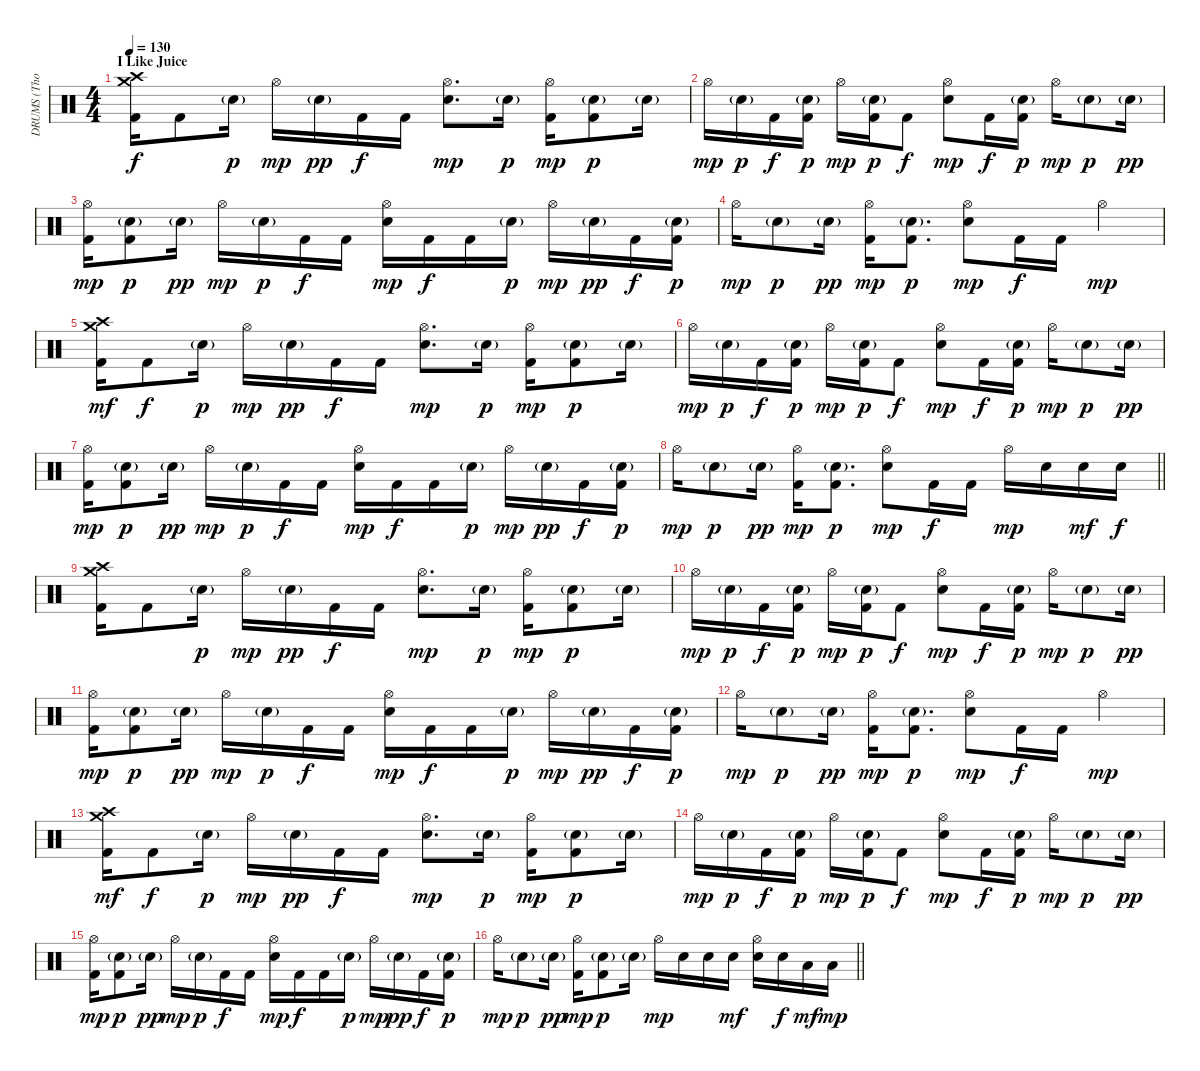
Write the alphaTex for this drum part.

\track ("DRUMS (Thomas Haake)" "DRUMS (Tho") {instrument percussion}
\staff {score}
\articulation defaults
\ts (4 4)
\section ("" "I Like Juice")
\tempo 130
\clef neutral
\ks c
("Crash high (hit)" "Crash medium (hit)" "Kick (hit) 2").16{dy f} "Kick (hit) 2".8 "Electric Snare (hit)"{g}.16{dy p} "Hi-Hat (open)".16{dy mp} "Electric Snare (hit)"{g}.16{dy pp} "Kick (hit) 2".16{dy f} "Kick (hit) 2".16 ("Hi-Hat (open)" "Electric Snare (hit)").8{d dy mp} "Electric Snare (hit)"{g}.16{dy p} ("Hi-Hat (open)" "Kick (hit) 2").16{dy mp} ("Electric Snare (hit)"{g} "Kick (hit) 2").8{dy p} "Electric Snare (hit)"{g}.16 |
"Hi-Hat (open)".16{dy mp} "Electric Snare (hit)"{g}.16{dy p} "Kick (hit) 2".16{dy f} ("Electric Snare (hit)"{g} "Kick (hit) 2").16{dy p} "Hi-Hat (open)".16{dy mp} ("Electric Snare (hit)"{g} "Kick (hit) 2").16{dy p} "Kick (hit) 2".8{dy f} ("Hi-Hat (open)" "Electric Snare (hit)").8{dy mp} "Kick (hit) 2".16{dy f} ("Electric Snare (hit)"{g} "Kick (hit) 2").16{dy p} "Hi-Hat (open)".16{dy mp} "Electric Snare (hit)"{g}.8{dy p} "Electric Snare (hit)"{g}.16{dy pp} |
("Hi-Hat (open)" "Kick (hit) 2").16{dy mp} ("Electric Snare (hit)"{g} "Kick (hit) 2").8{dy p} "Electric Snare (hit)"{g}.16{dy pp} "Hi-Hat (open)".16{dy mp} "Electric Snare (hit)"{g}.16{dy p} "Kick (hit) 2".16{dy f} "Kick (hit) 2".16 ("Hi-Hat (open)" "Electric Snare (hit)").16{dy mp} "Kick (hit) 2".16{dy f} "Kick (hit) 2".16 "Electric Snare (hit)"{g}.16{dy p} "Hi-Hat (open)".16{dy mp} "Electric Snare (hit)"{g}.16{dy pp} "Kick (hit) 2".16{dy f} ("Electric Snare (hit)"{g} "Kick (hit) 2").16{dy p} |
"Hi-Hat (open)".16{dy mp} "Electric Snare (hit)"{g}.8{dy p} "Electric Snare (hit)"{g}.16{dy pp} ("Hi-Hat (open)" "Kick (hit) 2").16{dy mp} ("Electric Snare (hit)"{g} "Kick (hit) 2").8{d dy p} ("Hi-Hat (open)" "Electric Snare (hit)").8{dy mp} "Kick (hit) 2".16{dy f} "Kick (hit) 2".16 "Hi-Hat (open)".4{dy mp} |
("Crash high (hit)" "Crash medium (hit)" "Kick (hit) 2").16{dy mf} "Kick (hit) 2".8{dy f} "Electric Snare (hit)"{g}.16{dy p} "Hi-Hat (open)".16{dy mp} "Electric Snare (hit)"{g}.16{dy pp} "Kick (hit) 2".16{dy f} "Kick (hit) 2".16 ("Hi-Hat (open)" "Electric Snare (hit)").8{d dy mp} "Electric Snare (hit)"{g}.16{dy p} ("Hi-Hat (open)" "Kick (hit) 2").16{dy mp} ("Electric Snare (hit)"{g} "Kick (hit) 2").8{dy p} "Electric Snare (hit)"{g}.16 |
"Hi-Hat (open)".16{dy mp} "Electric Snare (hit)"{g}.16{dy p} "Kick (hit) 2".16{dy f} ("Electric Snare (hit)"{g} "Kick (hit) 2").16{dy p} "Hi-Hat (open)".16{dy mp} ("Electric Snare (hit)"{g} "Kick (hit) 2").16{dy p} "Kick (hit) 2".8{dy f} ("Hi-Hat (open)" "Electric Snare (hit)").8{dy mp} "Kick (hit) 2".16{dy f} ("Electric Snare (hit)"{g} "Kick (hit) 2").16{dy p} "Hi-Hat (open)".16{dy mp} "Electric Snare (hit)"{g}.8{dy p} "Electric Snare (hit)"{g}.16{dy pp} |
("Hi-Hat (open)" "Kick (hit) 2").16{dy mp} ("Electric Snare (hit)"{g} "Kick (hit) 2").8{dy p} "Electric Snare (hit)"{g}.16{dy pp} "Hi-Hat (open)".16{dy mp} "Electric Snare (hit)"{g}.16{dy p} "Kick (hit) 2".16{dy f} "Kick (hit) 2".16 ("Hi-Hat (open)" "Electric Snare (hit)").16{dy mp} "Kick (hit) 2".16{dy f} "Kick (hit) 2".16 "Electric Snare (hit)"{g}.16{dy p} "Hi-Hat (open)".16{dy mp} "Electric Snare (hit)"{g}.16{dy pp} "Kick (hit) 2".16{dy f} ("Electric Snare (hit)"{g} "Kick (hit) 2").16{dy p} |
\barLineRight lightlight "Hi-Hat (open)".16{dy mp} "Electric Snare (hit)"{g}.8{dy p} "Electric Snare (hit)"{g}.16{dy pp}
("Hi-Hat (open)" "Kick (hit) 2").16{dy mp} ("Electric Snare (hit)"{g} "Kick (hit) 2").8{d dy p} ("Hi-Hat (open)" "Electric Snare (hit)").8{dy mp} "Kick (hit) 2".16{dy f} "Kick (hit) 2".16 "Hi-Hat (open)".16{dy mp} "Electric Snare (hit)".16 "Electric Snare (hit)".16{dy mf} "Electric Snare (hit)".16{dy f} |
("Crash high (hit)" "Crash medium (hit)" "Kick (hit) 2").16 "Kick (hit) 2".8 "Electric Snare (hit)"{g}.16{dy p} "Hi-Hat (open)".16{dy mp} "Electric Snare (hit)"{g}.16{dy pp} "Kick (hit) 2".16{dy f} "Kick (hit) 2".16 ("Hi-Hat (open)" "Electric Snare (hit)").8{d dy mp} "Electric Snare (hit)"{g}.16{dy p} ("Hi-Hat (open)" "Kick (hit) 2").16{dy mp} ("Electric Snare (hit)"{g} "Kick (hit) 2").8{dy p} "Electric Snare (hit)"{g}.16 |
"Hi-Hat (open)".16{dy mp} "Electric Snare (hit)"{g}.16{dy p} "Kick (hit) 2".16{dy f} ("Electric Snare (hit)"{g} "Kick (hit) 2").16{dy p} "Hi-Hat (open)".16{dy mp} ("Electric Snare (hit)"{g} "Kick (hit) 2").16{dy p} "Kick (hit) 2".8{dy f} ("Hi-Hat (open)" "Electric Snare (hit)").8{dy mp} "Kick (hit) 2".16{dy f} ("Electric Snare (hit)"{g} "Kick (hit) 2").16{dy p} "Hi-Hat (open)".16{dy mp} "Electric Snare (hit)"{g}.8{dy p} "Electric Snare (hit)"{g}.16{dy pp} |
("Hi-Hat (open)" "Kick (hit) 2").16{dy mp} ("Electric Snare (hit)"{g} "Kick (hit) 2").8{dy p} "Electric Snare (hit)"{g}.16{dy pp} "Hi-Hat (open)".16{dy mp} "Electric Snare (hit)"{g}.16{dy p} "Kick (hit) 2".16{dy f} "Kick (hit) 2".16 ("Hi-Hat (open)" "Electric Snare (hit)").16{dy mp} "Kick (hit) 2".16{dy f} "Kick (hit) 2".16 "Electric Snare (hit)"{g}.16{dy p} "Hi-Hat (open)".16{dy mp} "Electric Snare (hit)"{g}.16{dy pp} "Kick (hit) 2".16{dy f} ("Electric Snare (hit)"{g} "Kick (hit) 2").16{dy p} |
"Hi-Hat (open)".16{dy mp} "Electric Snare (hit)"{g}.8{dy p} "Electric Snare (hit)"{g}.16{dy pp} ("Hi-Hat (open)" "Kick (hit) 2").16{dy mp} ("Electric Snare (hit)"{g} "Kick (hit) 2").8{d dy p} ("Hi-Hat (open)" "Electric Snare (hit)").8{dy mp} "Kick (hit) 2".16{dy f} "Kick (hit) 2".16 "Hi-Hat (open)".4{dy mp} |
("Crash high (hit)" "Crash medium (hit)" "Kick (hit) 2").16{dy mf} "Kick (hit) 2".8{dy f} "Electric Snare (hit)"{g}.16{dy p} "Hi-Hat (open)".16{dy mp} "Electric Snare (hit)"{g}.16{dy pp} "Kick (hit) 2".16{dy f} "Kick (hit) 2".16 ("Hi-Hat (open)" "Electric Snare (hit)").8{d dy mp} "Electric Snare (hit)"{g}.16{dy p} ("Hi-Hat (open)" "Kick (hit) 2").16{dy mp} ("Electric Snare (hit)"{g} "Kick (hit) 2").8{dy p} "Electric Snare (hit)"{g}.16 |
"Hi-Hat (open)".16{dy mp} "Electric Snare (hit)"{g}.16{dy p} "Kick (hit) 2".16{dy f} ("Electric Snare (hit)"{g} "Kick (hit) 2").16{dy p} "Hi-Hat (open)".16{dy mp} ("Electric Snare (hit)"{g} "Kick (hit) 2").16{dy p} "Kick (hit) 2".8{dy f} ("Hi-Hat (open)" "Electric Snare (hit)").8{dy mp} "Kick (hit) 2".16{dy f} ("Electric Snare (hit)"{g} "Kick (hit) 2").16{dy p} "Hi-Hat (open)".16{dy mp} "Electric Snare (hit)"{g}.8{dy p} "Electric Snare (hit)"{g}.16{dy pp} |
("Hi-Hat (open)" "Kick (hit) 2").16{dy mp} ("Electric Snare (hit)"{g} "Kick (hit) 2").8{dy p} "Electric Snare (hit)"{g}.16{dy pp} "Hi-Hat (open)".16{dy mp} "Electric Snare (hit)"{g}.16{dy p} "Kick (hit) 2".16{dy f} "Kick (hit) 2".16 ("Hi-Hat (open)" "Electric Snare (hit)").16{dy mp} "Kick (hit) 2".16{dy f} "Kick (hit) 2".16 "Electric Snare (hit)"{g}.16{dy p} "Hi-Hat (open)".16{dy mp} "Electric Snare (hit)"{g}.16{dy pp} "Kick (hit) 2".16{dy f} ("Electric Snare (hit)"{g} "Kick (hit) 2").16{dy p} |
\barLineRight lightlight "Hi-Hat (open)".16{dy mp} "Electric Snare (hit)"{g}.8{dy p} "Electric Snare (hit)"{g}.16{dy pp}
("Hi-Hat (open)" "Kick (hit) 2").16{dy mp} ("Electric Snare (hit)"{g} "Kick (hit) 2").8{dy p} "Electric Snare (hit)"{g}.16 "Hi-Hat (open)".16{dy mp} "Electric Snare (hit)".16 "Electric Snare (hit)".16 "Electric Snare (hit)".16{dy mf} ("Hi-Hat (open)" "Electric Snare (hit)").16 "Electric Snare (hit)".16{dy f} "Low Tom (hit)".16{dy mf} "Low Tom (hit)".16{dy mp}
